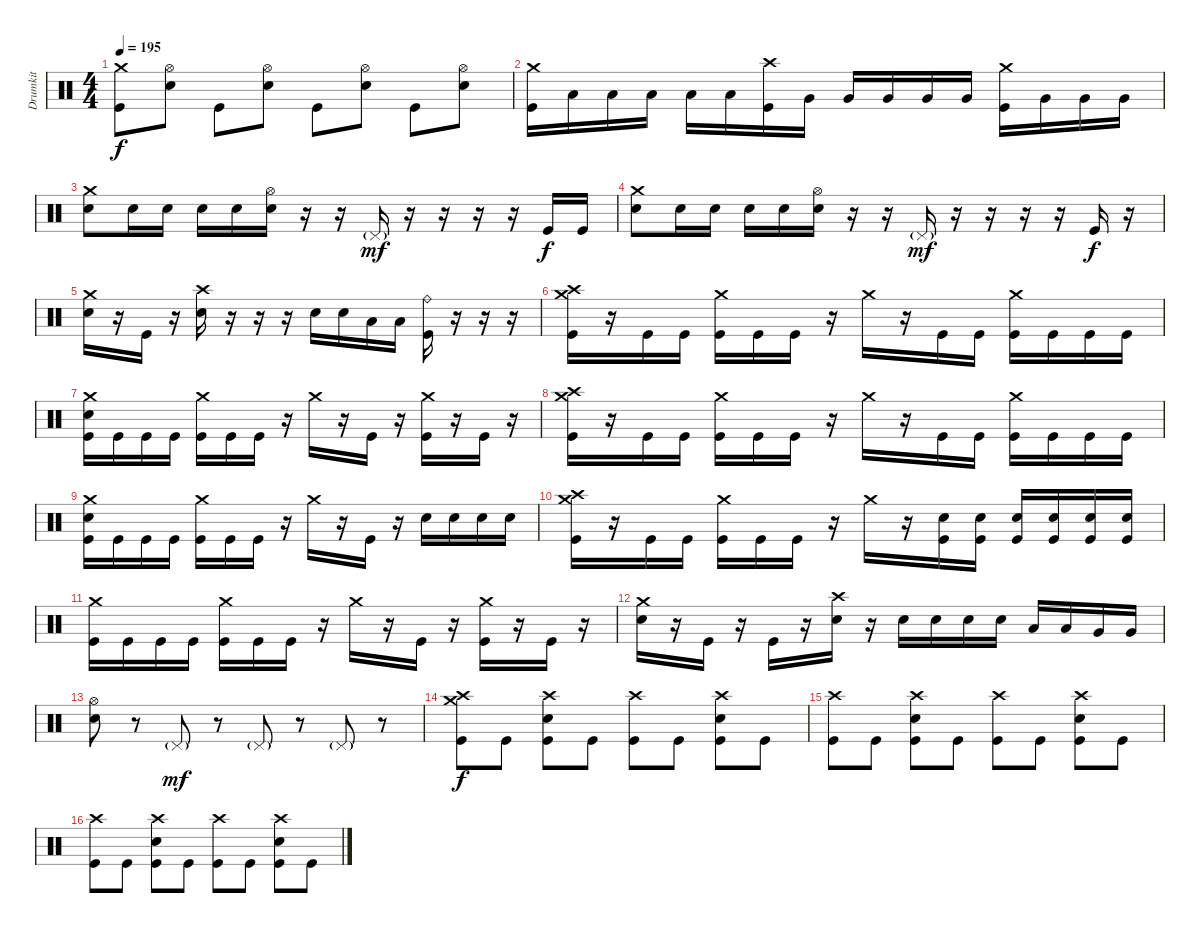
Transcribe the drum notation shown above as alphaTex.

\track ("Drumkit" "Drumkit") {instrument percussion}
\staff {score}
\articulation defaults
\ts (4 4)
\tempo 195
\clef neutral
\ks c
("Crash medium (hit)" "Kick (hit)").8{dy f} ("Hi-Hat (open)" "Snare (hit) 2").8 "Kick (hit)".8 ("Hi-Hat (open)" "Snare (hit) 2").8 "Kick (hit)".8 ("Hi-Hat (open)" "Snare (hit) 2").8 "Kick (hit)".8 ("Hi-Hat (open)" "Snare (hit) 2").8 |
("Crash medium (hit)" "Kick (hit)").16 "Low Tom (hit)".16 "Low Tom (hit)".16 "Low Tom (hit)".16 "Low Tom (hit)".16 "Low Tom (hit)".16 ("Crash high (hit)" "Kick (hit)").16 "Very Low Tom (hit)".16 "Very Low Tom (hit)".16 "Very Low Tom (hit)".16 "Very Low Tom (hit)".16 "Very Low Tom (hit)".16 ("Crash medium (hit)" "Kick (hit)").16 "Very Low Tom (hit)".16 "Very Low Tom (hit)".16 "Very Low Tom (hit)".16 |
("Crash medium (hit)" "Snare (hit) 2").8 "Snare (hit) 2".16 "Snare (hit) 2".16 "Snare (hit) 2".16 "Snare (hit) 2".16 ("Hi-Hat (open)" "Snare (hit) 2").16 r.16 r.16 "Pedal Hi-Hat (hit)"{g}.16{dy mf} r.16 r.16 r.16 r.16 "Kick (hit)".16{dy f} "Kick (hit)".16 |
("Crash medium (hit)" "Snare (hit) 2").8 "Snare (hit) 2".16 "Snare (hit) 2".16 "Snare (hit) 2".16 "Snare (hit) 2".16 ("Hi-Hat (open)" "Snare (hit) 2").16 r.16 r.16 "Pedal Hi-Hat (hit)"{g}.16{dy mf} r.16 r.16 r.16 r.16 "Kick (hit)".16{dy f} r.16 |
("Crash medium (hit)" "Snare (hit) 2").16 r.16 "Kick (hit)".16 r.16 ("Crash high (hit)" "Snare (hit) 2").16 r.16 r.16 r.16 "Snare (hit) 2".16 "Snare (hit) 2".16 "Low Tom (hit)".16 "Low Tom (hit)".16 ("Ride (bell)" "Kick (hit)").16 r.16 r.16 r.16 |
("Crash medium (hit)" "Crash high (hit)" "Kick (hit)").16 r.16 "Kick (hit)".16 "Kick (hit)".16 ("Crash medium (hit)" "Kick (hit)").16 "Kick (hit)".16 "Kick (hit)".16 r.16 "Crash medium (hit)".16 r.16 "Kick (hit)".16 "Kick (hit)".16 ("Crash medium (hit)" "Kick (hit)").16 "Kick (hit)".16 "Kick (hit)".16 "Kick (hit)".16 |
("Crash medium (hit)" "Snare (hit) 2" "Kick (hit)").16 "Kick (hit)".16 "Kick (hit)".16 "Kick (hit)".16 ("Crash medium (hit)" "Kick (hit)").16 "Kick (hit)".16 "Kick (hit)".16 r.16 "Crash medium (hit)".16 r.16 "Kick (hit)".16 r.16 ("Crash medium (hit)" "Kick (hit)").16 r.16 "Kick (hit)".16 r.16 |
("Crash medium (hit)" "Crash high (hit)" "Kick (hit)").16 r.16 "Kick (hit)".16 "Kick (hit)".16 ("Crash medium (hit)" "Kick (hit)").16 "Kick (hit)".16 "Kick (hit)".16 r.16 "Crash medium (hit)".16 r.16 "Kick (hit)".16 "Kick (hit)".16 ("Crash medium (hit)" "Kick (hit)").16 "Kick (hit)".16 "Kick (hit)".16 "Kick (hit)".16 |
("Crash medium (hit)" "Snare (hit) 2" "Kick (hit)").16 "Kick (hit)".16 "Kick (hit)".16 "Kick (hit)".16 ("Crash medium (hit)" "Kick (hit)").16 "Kick (hit)".16 "Kick (hit)".16 r.16 "Crash medium (hit)".16 r.16 "Kick (hit)".16 r.16 "Snare (hit) 2".16 "Snare (hit) 2".16 "Snare (hit) 2".16 "Snare (hit) 2".16 |
("Crash medium (hit)" "Crash high (hit)" "Kick (hit)").16 r.16 "Kick (hit)".16 "Kick (hit)".16 ("Crash medium (hit)" "Kick (hit)").16 "Kick (hit)".16 "Kick (hit)".16 r.16 "Crash medium (hit)".16 r.16 ("Snare (hit) 2" "Kick (hit)").16 ("Snare (hit) 2" "Kick (hit)").16 ("Snare (hit) 2" "Kick (hit)").16 ("Snare (hit) 2" "Kick (hit)").16 ("Snare (hit) 2" "Kick (hit)").16 ("Snare (hit) 2" "Kick (hit)").16 |
("Crash medium (hit)" "Kick (hit)").16 "Kick (hit)".16 "Kick (hit)".16 "Kick (hit)".16 ("Crash medium (hit)" "Kick (hit)").16 "Kick (hit)".16 "Kick (hit)".16 r.16 "Crash medium (hit)".16 r.16 "Kick (hit)".16 r.16 ("Crash medium (hit)" "Kick (hit)").16 r.16 "Kick (hit)".16 r.16 |
("Crash medium (hit)" "Snare (hit) 2").16 r.16 "Kick (hit)".16 r.16 "Kick (hit)".16 r.16 ("Crash high (hit)" "Snare (hit) 2").16 r.16 "Snare (hit) 2".16 "Snare (hit) 2".16 "Snare (hit) 2".16 "Snare (hit) 2".16 "Low Tom (hit)".16 "Low Tom (hit)".16 "Very Low Tom (hit)".16 "Very Low Tom (hit)".16 |
("Hi-Hat (open)" "Snare (hit) 2").8 r.8 "Pedal Hi-Hat (hit)"{g}.8{dy mf} r.8 "Pedal Hi-Hat (hit)"{g}.8 r.8 "Pedal Hi-Hat (hit)"{g}.8 r.8 |
("Crash medium (hit)" "Crash high (hit)" "Kick (hit)").8{dy f} "Kick (hit)".8 ("Crash high (hit)" "Snare (hit) 2" "Kick (hit)").8 "Kick (hit)".8 ("Crash high (hit)" "Kick (hit)").8 "Kick (hit)".8 ("Crash high (hit)" "Snare (hit) 2" "Kick (hit)").8 "Kick (hit)".8 |
("Crash high (hit)" "Kick (hit)").8 "Kick (hit)".8 ("Crash high (hit)" "Snare (hit) 2" "Kick (hit)").8 "Kick (hit)".8 ("Crash high (hit)" "Kick (hit)").8 "Kick (hit)".8 ("Crash high (hit)" "Snare (hit) 2" "Kick (hit)").8 "Kick (hit)".8 |
("Crash high (hit)" "Kick (hit)").8 "Kick (hit)".8 ("Crash high (hit)" "Snare (hit) 2" "Kick (hit)").8 "Kick (hit)".8 ("Crash high (hit)" "Kick (hit)").8 "Kick (hit)".8 ("Crash high (hit)" "Snare (hit) 2" "Kick (hit)").8 "Kick (hit)".8
